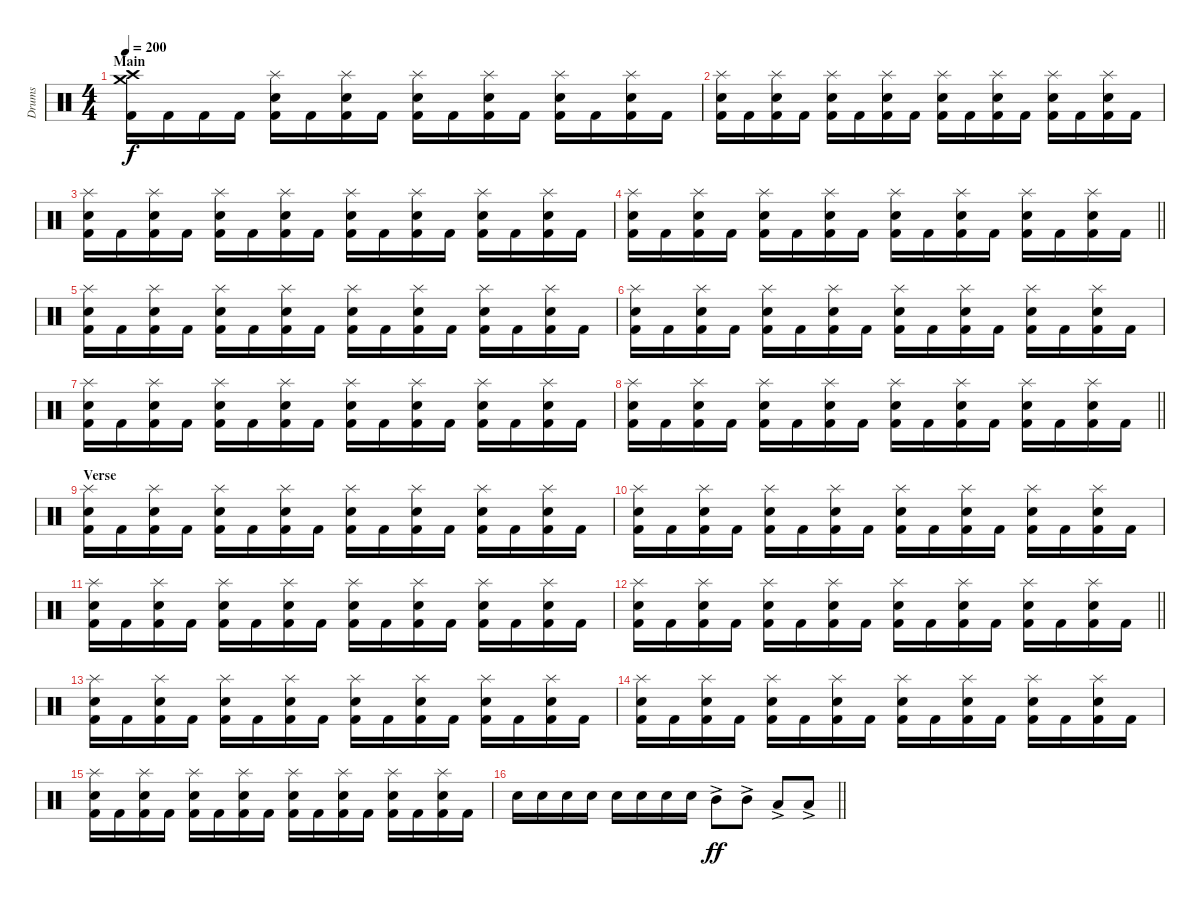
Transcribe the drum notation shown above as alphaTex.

\track ("Drums" "Drums") {instrument percussion}
\staff {score}
\articulation defaults
\ts (4 4)
\section ("" "Main")
\tempo 200
\clef neutral
\ks c
("Kick (hit) 2" "Crash medium (hit)" "Crash high (hit)").16{dy f} "Kick (hit) 2".16 "Kick (hit) 2".16 "Kick (hit) 2".16 ("Kick (hit) 2" "Snare (hit) 2" "Splash (hit)").16 "Kick (hit) 2".16 ("Kick (hit) 2" "Snare (hit) 2" "Splash (hit)").16 "Kick (hit) 2".16 ("Kick (hit) 2" "Snare (hit) 2" "Splash (hit)").16 "Kick (hit) 2".16 ("Kick (hit) 2" "Snare (hit) 2" "Splash (hit)").16 "Kick (hit) 2".16 ("Kick (hit) 2" "Snare (hit) 2" "Splash (hit)").16 "Kick (hit) 2".16 ("Kick (hit) 2" "Snare (hit) 2" "Splash (hit)").16 "Kick (hit) 2".16 |
("Kick (hit) 2" "Snare (hit) 2" "Splash (hit)").16 "Kick (hit) 2".16 ("Kick (hit) 2" "Snare (hit) 2" "Splash (hit)").16 "Kick (hit) 2".16 ("Kick (hit) 2" "Snare (hit) 2" "Splash (hit)").16 "Kick (hit) 2".16 ("Kick (hit) 2" "Snare (hit) 2" "Splash (hit)").16 "Kick (hit) 2".16 ("Kick (hit) 2" "Snare (hit) 2" "Splash (hit)").16 "Kick (hit) 2".16 ("Kick (hit) 2" "Snare (hit) 2" "Splash (hit)").16 "Kick (hit) 2".16 ("Kick (hit) 2" "Snare (hit) 2" "Splash (hit)").16 "Kick (hit) 2".16 ("Kick (hit) 2" "Snare (hit) 2" "Splash (hit)").16 "Kick (hit) 2".16 |
("Kick (hit) 2" "Snare (hit) 2" "Splash (hit)").16 "Kick (hit) 2".16 ("Kick (hit) 2" "Snare (hit) 2" "Splash (hit)").16 "Kick (hit) 2".16 ("Kick (hit) 2" "Snare (hit) 2" "Splash (hit)").16 "Kick (hit) 2".16 ("Kick (hit) 2" "Snare (hit) 2" "Splash (hit)").16 "Kick (hit) 2".16 ("Kick (hit) 2" "Snare (hit) 2" "Splash (hit)").16 "Kick (hit) 2".16 ("Kick (hit) 2" "Snare (hit) 2" "Splash (hit)").16 "Kick (hit) 2".16 ("Kick (hit) 2" "Snare (hit) 2" "Splash (hit)").16 "Kick (hit) 2".16 ("Kick (hit) 2" "Snare (hit) 2" "Splash (hit)").16 "Kick (hit) 2".16 |
\barLineRight lightlight
("Kick (hit) 2" "Snare (hit) 2" "Splash (hit)").16 "Kick (hit) 2".16 ("Kick (hit) 2" "Snare (hit) 2" "Splash (hit)").16 "Kick (hit) 2".16 ("Kick (hit) 2" "Snare (hit) 2" "Splash (hit)").16 "Kick (hit) 2".16 ("Kick (hit) 2" "Snare (hit) 2" "Splash (hit)").16 "Kick (hit) 2".16 ("Kick (hit) 2" "Snare (hit) 2" "Splash (hit)").16 "Kick (hit) 2".16 ("Kick (hit) 2" "Snare (hit) 2" "Splash (hit)").16 "Kick (hit) 2".16 ("Kick (hit) 2" "Snare (hit) 2" "Splash (hit)").16 "Kick (hit) 2".16 ("Kick (hit) 2" "Snare (hit) 2" "Splash (hit)").16 "Kick (hit) 2".16 |
\section ("" "")
("Kick (hit) 2" "Snare (hit) 2" "Splash (hit)").16 "Kick (hit) 2".16 ("Kick (hit) 2" "Snare (hit) 2" "Splash (hit)").16 "Kick (hit) 2".16 ("Kick (hit) 2" "Snare (hit) 2" "Splash (hit)").16 "Kick (hit) 2".16 ("Kick (hit) 2" "Snare (hit) 2" "Splash (hit)").16 "Kick (hit) 2".16 ("Kick (hit) 2" "Snare (hit) 2" "Splash (hit)").16 "Kick (hit) 2".16 ("Kick (hit) 2" "Snare (hit) 2" "Splash (hit)").16 "Kick (hit) 2".16 ("Kick (hit) 2" "Snare (hit) 2" "Splash (hit)").16 "Kick (hit) 2".16 ("Kick (hit) 2" "Snare (hit) 2" "Splash (hit)").16 "Kick (hit) 2".16 |
("Kick (hit) 2" "Snare (hit) 2" "Splash (hit)").16 "Kick (hit) 2".16 ("Kick (hit) 2" "Snare (hit) 2" "Splash (hit)").16 "Kick (hit) 2".16 ("Kick (hit) 2" "Snare (hit) 2" "Splash (hit)").16 "Kick (hit) 2".16 ("Kick (hit) 2" "Snare (hit) 2" "Splash (hit)").16 "Kick (hit) 2".16 ("Kick (hit) 2" "Snare (hit) 2" "Splash (hit)").16 "Kick (hit) 2".16 ("Kick (hit) 2" "Snare (hit) 2" "Splash (hit)").16 "Kick (hit) 2".16 ("Kick (hit) 2" "Snare (hit) 2" "Splash (hit)").16 "Kick (hit) 2".16 ("Kick (hit) 2" "Snare (hit) 2" "Splash (hit)").16 "Kick (hit) 2".16 |
("Kick (hit) 2" "Snare (hit) 2" "Splash (hit)").16 "Kick (hit) 2".16 ("Kick (hit) 2" "Snare (hit) 2" "Splash (hit)").16 "Kick (hit) 2".16 ("Kick (hit) 2" "Snare (hit) 2" "Splash (hit)").16 "Kick (hit) 2".16 ("Kick (hit) 2" "Snare (hit) 2" "Splash (hit)").16 "Kick (hit) 2".16 ("Kick (hit) 2" "Snare (hit) 2" "Splash (hit)").16 "Kick (hit) 2".16 ("Kick (hit) 2" "Snare (hit) 2" "Splash (hit)").16 "Kick (hit) 2".16 ("Kick (hit) 2" "Snare (hit) 2" "Splash (hit)").16 "Kick (hit) 2".16 ("Kick (hit) 2" "Snare (hit) 2" "Splash (hit)").16 "Kick (hit) 2".16 |
\barLineRight lightlight
("Kick (hit) 2" "Snare (hit) 2" "Splash (hit)").16 "Kick (hit) 2".16 ("Kick (hit) 2" "Snare (hit) 2" "Splash (hit)").16 "Kick (hit) 2".16 ("Kick (hit) 2" "Snare (hit) 2" "Splash (hit)").16 "Kick (hit) 2".16 ("Kick (hit) 2" "Snare (hit) 2" "Splash (hit)").16 "Kick (hit) 2".16 ("Kick (hit) 2" "Snare (hit) 2" "Splash (hit)").16 "Kick (hit) 2".16 ("Kick (hit) 2" "Snare (hit) 2" "Splash (hit)").16 "Kick (hit) 2".16 ("Kick (hit) 2" "Snare (hit) 2" "Splash (hit)").16 "Kick (hit) 2".16 ("Kick (hit) 2" "Snare (hit) 2" "Splash (hit)").16 "Kick (hit) 2".16 |
\section ("" "Verse")
("Kick (hit) 2" "Snare (hit) 2" "Splash (hit)").16 "Kick (hit) 2".16 ("Kick (hit) 2" "Snare (hit) 2" "Splash (hit)").16 "Kick (hit) 2".16 ("Kick (hit) 2" "Snare (hit) 2" "Splash (hit)").16 "Kick (hit) 2".16 ("Kick (hit) 2" "Snare (hit) 2" "Splash (hit)").16 "Kick (hit) 2".16 ("Kick (hit) 2" "Snare (hit) 2" "Splash (hit)").16 "Kick (hit) 2".16 ("Kick (hit) 2" "Snare (hit) 2" "Splash (hit)").16 "Kick (hit) 2".16 ("Kick (hit) 2" "Snare (hit) 2" "Splash (hit)").16 "Kick (hit) 2".16 ("Kick (hit) 2" "Snare (hit) 2" "Splash (hit)").16 "Kick (hit) 2".16 |
("Kick (hit) 2" "Snare (hit) 2" "Splash (hit)").16 "Kick (hit) 2".16 ("Kick (hit) 2" "Snare (hit) 2" "Splash (hit)").16 "Kick (hit) 2".16 ("Kick (hit) 2" "Snare (hit) 2" "Splash (hit)").16 "Kick (hit) 2".16 ("Kick (hit) 2" "Snare (hit) 2" "Splash (hit)").16 "Kick (hit) 2".16 ("Kick (hit) 2" "Snare (hit) 2" "Splash (hit)").16 "Kick (hit) 2".16 ("Kick (hit) 2" "Snare (hit) 2" "Splash (hit)").16 "Kick (hit) 2".16 ("Kick (hit) 2" "Snare (hit) 2" "Splash (hit)").16 "Kick (hit) 2".16 ("Kick (hit) 2" "Snare (hit) 2" "Splash (hit)").16 "Kick (hit) 2".16 |
("Kick (hit) 2" "Snare (hit) 2" "Splash (hit)").16 "Kick (hit) 2".16 ("Kick (hit) 2" "Snare (hit) 2" "Splash (hit)").16 "Kick (hit) 2".16 ("Kick (hit) 2" "Snare (hit) 2" "Splash (hit)").16 "Kick (hit) 2".16 ("Kick (hit) 2" "Snare (hit) 2" "Splash (hit)").16 "Kick (hit) 2".16 ("Kick (hit) 2" "Snare (hit) 2" "Splash (hit)").16 "Kick (hit) 2".16 ("Kick (hit) 2" "Snare (hit) 2" "Splash (hit)").16 "Kick (hit) 2".16 ("Kick (hit) 2" "Snare (hit) 2" "Splash (hit)").16 "Kick (hit) 2".16 ("Kick (hit) 2" "Snare (hit) 2" "Splash (hit)").16 "Kick (hit) 2".16 |
\barLineRight lightlight
("Kick (hit) 2" "Snare (hit) 2" "Splash (hit)").16 "Kick (hit) 2".16 ("Kick (hit) 2" "Snare (hit) 2" "Splash (hit)").16 "Kick (hit) 2".16 ("Kick (hit) 2" "Snare (hit) 2" "Splash (hit)").16 "Kick (hit) 2".16 ("Kick (hit) 2" "Snare (hit) 2" "Splash (hit)").16 "Kick (hit) 2".16 ("Kick (hit) 2" "Snare (hit) 2" "Splash (hit)").16 "Kick (hit) 2".16 ("Kick (hit) 2" "Snare (hit) 2" "Splash (hit)").16 "Kick (hit) 2".16 ("Kick (hit) 2" "Snare (hit) 2" "Splash (hit)").16 "Kick (hit) 2".16 ("Kick (hit) 2" "Snare (hit) 2" "Splash (hit)").16 "Kick (hit) 2".16 |
\section ("" "")
("Kick (hit) 2" "Snare (hit) 2" "Splash (hit)").16 "Kick (hit) 2".16 ("Kick (hit) 2" "Snare (hit) 2" "Splash (hit)").16 "Kick (hit) 2".16 ("Kick (hit) 2" "Snare (hit) 2" "Splash (hit)").16 "Kick (hit) 2".16 ("Kick (hit) 2" "Snare (hit) 2" "Splash (hit)").16 "Kick (hit) 2".16 ("Kick (hit) 2" "Snare (hit) 2" "Splash (hit)").16 "Kick (hit) 2".16 ("Kick (hit) 2" "Snare (hit) 2" "Splash (hit)").16 "Kick (hit) 2".16 ("Kick (hit) 2" "Snare (hit) 2" "Splash (hit)").16 "Kick (hit) 2".16 ("Kick (hit) 2" "Snare (hit) 2" "Splash (hit)").16 "Kick (hit) 2".16 |
("Kick (hit) 2" "Snare (hit) 2" "Splash (hit)").16 "Kick (hit) 2".16 ("Kick (hit) 2" "Snare (hit) 2" "Splash (hit)").16 "Kick (hit) 2".16 ("Kick (hit) 2" "Snare (hit) 2" "Splash (hit)").16 "Kick (hit) 2".16 ("Kick (hit) 2" "Snare (hit) 2" "Splash (hit)").16 "Kick (hit) 2".16 ("Kick (hit) 2" "Snare (hit) 2" "Splash (hit)").16 "Kick (hit) 2".16 ("Kick (hit) 2" "Snare (hit) 2" "Splash (hit)").16 "Kick (hit) 2".16 ("Kick (hit) 2" "Snare (hit) 2" "Splash (hit)").16 "Kick (hit) 2".16 ("Kick (hit) 2" "Snare (hit) 2" "Splash (hit)").16 "Kick (hit) 2".16 |
("Kick (hit) 2" "Snare (hit) 2" "Splash (hit)").16 "Kick (hit) 2".16 ("Kick (hit) 2" "Snare (hit) 2" "Splash (hit)").16 "Kick (hit) 2".16 ("Kick (hit) 2" "Snare (hit) 2" "Splash (hit)").16 "Kick (hit) 2".16 ("Kick (hit) 2" "Snare (hit) 2" "Splash (hit)").16 "Kick (hit) 2".16 ("Kick (hit) 2" "Snare (hit) 2" "Splash (hit)").16 "Kick (hit) 2".16 ("Kick (hit) 2" "Snare (hit) 2" "Splash (hit)").16 "Kick (hit) 2".16 ("Kick (hit) 2" "Snare (hit) 2" "Splash (hit)").16 "Kick (hit) 2".16 ("Kick (hit) 2" "Snare (hit) 2" "Splash (hit)").16 "Kick (hit) 2".16 |
\barLineRight lightlight "Snare (hit) 2".16 "Snare (hit) 2".16 "Snare (hit) 2".16 "Snare (hit) 2".16 "Snare (hit) 2".16 "Snare (hit) 2".16 "Snare (hit) 2".16 "Snare (hit) 2".16 "Mid Tom (hit)"{ac}.8{dy ff} "Mid Tom (hit)"{ac}.8 "Low Tom (hit)"{ac}.8 "Low Tom (hit)"{ac}.8
